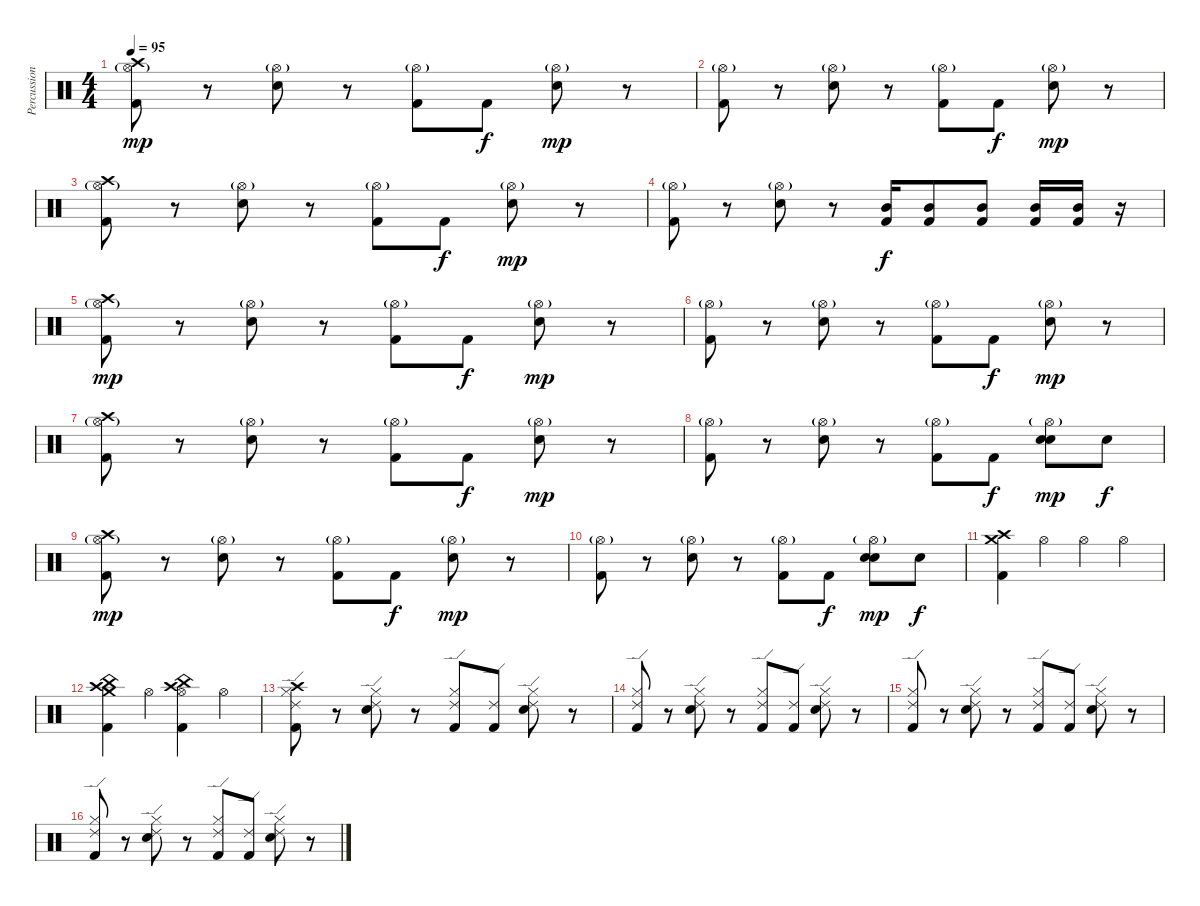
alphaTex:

\track ("Percussions" "Percussion") {instrument percussion}
\staff {score}
\articulation defaults
\ts (4 4)
\tempo 95
\clef neutral
\ks c
("Hi-Hat (open)"{g} "Crash high (hit)" "Kick (hit) 2").8{dy mp} r.8 ("Hi-Hat (open)"{g} "Snare (hit) 2").8 r.8 ("Hi-Hat (open)"{g} "Kick (hit) 2").8 "Kick (hit) 2".8{dy f} ("Hi-Hat (open)"{g} "Snare (hit) 2").8{dy mp} r.8 |
("Hi-Hat (open)"{g} "Kick (hit) 2").8 r.8 ("Hi-Hat (open)"{g} "Snare (hit) 2").8 r.8 ("Hi-Hat (open)"{g} "Kick (hit) 2").8 "Kick (hit) 2".8{dy f} ("Hi-Hat (open)"{g} "Snare (hit) 2").8{dy mp} r.8 |
("Hi-Hat (open)"{g} "Crash high (hit)" "Kick (hit) 2").8 r.8 ("Hi-Hat (open)"{g} "Snare (hit) 2").8 r.8 ("Hi-Hat (open)"{g} "Kick (hit) 2").8 "Kick (hit) 2".8{dy f} ("Hi-Hat (open)"{g} "Snare (hit) 2").8{dy mp} r.8 |
("Hi-Hat (open)"{g} "Kick (hit) 2").8 r.8 ("Hi-Hat (open)"{g} "Snare (hit) 2").8 r.8 ("Kick (hit) 2" "Mid Tom (hit)").16{dy f} ("Kick (hit) 2" "Mid Tom (hit)").8 ("Kick (hit) 2" "Mid Tom (hit)").8 ("Kick (hit) 2" "Mid Tom (hit)").16 ("Kick (hit) 2" "Mid Tom (hit)").16 r.16 |
("Hi-Hat (open)"{g} "Crash high (hit)" "Kick (hit) 2").8{dy mp} r.8 ("Hi-Hat (open)"{g} "Snare (hit) 2").8 r.8 ("Hi-Hat (open)"{g} "Kick (hit) 2").8 "Kick (hit) 2".8{dy f} ("Hi-Hat (open)"{g} "Snare (hit) 2").8{dy mp} r.8 |
("Hi-Hat (open)"{g} "Kick (hit) 2").8 r.8 ("Hi-Hat (open)"{g} "Snare (hit) 2").8 r.8 ("Hi-Hat (open)"{g} "Kick (hit) 2").8 "Kick (hit) 2".8{dy f} ("Hi-Hat (open)"{g} "Snare (hit) 2").8{dy mp} r.8 |
("Hi-Hat (open)"{g} "Crash high (hit)" "Kick (hit) 2").8 r.8 ("Hi-Hat (open)"{g} "Snare (hit) 2").8 r.8 ("Hi-Hat (open)"{g} "Kick (hit) 2").8 "Kick (hit) 2".8{dy f} ("Hi-Hat (open)"{g} "Snare (hit) 2").8{dy mp} r.8 |
("Hi-Hat (open)"{g} "Kick (hit) 2").8 r.8 ("Hi-Hat (open)"{g} "Snare (hit) 2").8 r.8 ("Hi-Hat (open)"{g} "Kick (hit) 2").8 "Kick (hit) 2".8{dy f} ("Hi-Hat (open)"{g} "Snare (hit) 2" "Snare (hit) 2").8{dy mp} "Snare (hit) 2".8{dy f} |
("Hi-Hat (open)"{g} "Crash high (hit)" "Kick (hit) 2").8{dy mp} r.8 ("Hi-Hat (open)"{g} "Snare (hit) 2").8 r.8 ("Hi-Hat (open)"{g} "Kick (hit) 2").8 "Kick (hit) 2".8{dy f} ("Hi-Hat (open)"{g} "Snare (hit) 2").8{dy mp} r.8 |
("Hi-Hat (open)"{g} "Kick (hit) 2").8 r.8 ("Hi-Hat (open)"{g} "Snare (hit) 2").8 r.8 ("Hi-Hat (open)"{g} "Kick (hit) 2").8 "Kick (hit) 2".8{dy f} ("Hi-Hat (open)"{g} "Snare (hit) 2" "Snare (hit) 2").8{dy mp} "Snare (hit) 2".8{dy f} |
("Crash medium (hit)" "Crash high (hit)" "Kick (hit) 2").4 "Hi-Hat (open)".4 "Hi-Hat (open)".4 "Hi-Hat (open)".4 |
("China (hit)" "Crash medium (hit)" "Crash high (hit)" "Kick (hit) 2").4 "Hi-Hat (open)".4 ("Hi-Hat (open)" "China (hit)" "Crash high (hit)" "Kick (hit) 2").4 "Hi-Hat (open)".4 |
("Hi-Hat (closed)" "Crash high (hit)" "Ride (edge) 2" "Kick (hit) 2").8 r.8 ("Hi-Hat (closed)" "Ride (edge) 2" "Snare (hit) 2").8 r.8 ("Hi-Hat (closed)" "Ride (edge) 2" "Kick (hit) 2").8 ("Ride (edge) 2" "Kick (hit) 2").8 ("Hi-Hat (closed)" "Ride (edge) 2" "Snare (hit) 2").8 r.8 |
("Hi-Hat (closed)" "Ride (edge) 2" "Kick (hit) 2").8 r.8 ("Hi-Hat (closed)" "Ride (edge) 2" "Snare (hit) 2").8 r.8 ("Hi-Hat (closed)" "Ride (edge) 2" "Kick (hit) 2").8 ("Ride (edge) 2" "Kick (hit) 2").8 ("Hi-Hat (closed)" "Ride (edge) 2" "Snare (hit) 2").8 r.8 |
("Hi-Hat (closed)" "Ride (edge) 2" "Kick (hit) 2").8 r.8 ("Hi-Hat (closed)" "Ride (edge) 2" "Snare (hit) 2").8 r.8 ("Hi-Hat (closed)" "Ride (edge) 2" "Kick (hit) 2").8 ("Ride (edge) 2" "Kick (hit) 2").8 ("Hi-Hat (closed)" "Ride (edge) 2" "Snare (hit) 2").8 r.8 |
("Hi-Hat (closed)" "Ride (edge) 2" "Kick (hit) 2").8 r.8 ("Hi-Hat (closed)" "Ride (edge) 2" "Snare (hit) 2").8 r.8 ("Hi-Hat (closed)" "Ride (edge) 2" "Kick (hit) 2").8 ("Ride (edge) 2" "Kick (hit) 2").8 ("Hi-Hat (closed)" "Ride (edge) 2" "Snare (hit) 2").8 r.8
